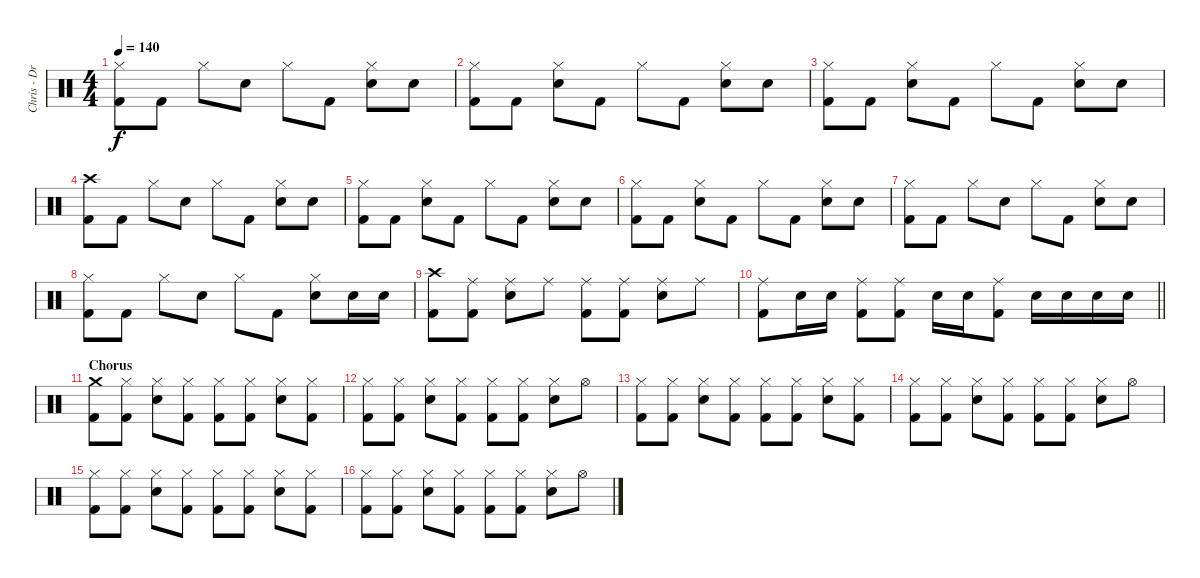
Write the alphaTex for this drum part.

\track ("Chris - Drums" "Chris - Dr") {instrument percussion}
\staff {score}
\articulation defaults
\ts (4 4)
\tempo 140
\clef neutral
\ks c
("Hi-Hat (closed)" "Kick (hit) 2").8{dy f} "Kick (hit) 2".8 "Hi-Hat (closed)".8 "Electric Snare (hit)".8 "Hi-Hat (closed)".8 "Kick (hit) 2".8 ("Hi-Hat (closed)" "Electric Snare (hit)").8 "Electric Snare (hit)".8 |
("Hi-Hat (closed)" "Kick (hit) 2").8 "Kick (hit) 2".8 ("Hi-Hat (closed)" "Electric Snare (hit)").8 "Kick (hit) 2".8 "Hi-Hat (closed)".8 "Kick (hit) 2".8 ("Hi-Hat (closed)" "Electric Snare (hit)").8 "Electric Snare (hit)".8 |
("Hi-Hat (closed)" "Kick (hit) 2").8 "Kick (hit) 2".8 ("Hi-Hat (closed)" "Electric Snare (hit)").8 "Kick (hit) 2".8 "Hi-Hat (closed)".8 "Kick (hit) 2".8 ("Hi-Hat (closed)" "Electric Snare (hit)").8 "Electric Snare (hit)".8 |
("Crash high (hit)" "Kick (hit) 2").8 "Kick (hit) 2".8 "Hi-Hat (closed)".8 "Electric Snare (hit)".8 "Hi-Hat (closed)".8 "Kick (hit) 2".8 ("Hi-Hat (closed)" "Electric Snare (hit)").8 "Electric Snare (hit)".8 |
("Hi-Hat (closed)" "Kick (hit) 2").8 "Kick (hit) 2".8 ("Hi-Hat (closed)" "Electric Snare (hit)").8 "Kick (hit) 2".8 "Hi-Hat (closed)".8 "Kick (hit) 2".8 ("Hi-Hat (closed)" "Electric Snare (hit)").8 "Electric Snare (hit)".8 |
("Hi-Hat (closed)" "Kick (hit) 2").8 "Kick (hit) 2".8 ("Hi-Hat (closed)" "Electric Snare (hit)").8 "Kick (hit) 2".8 "Hi-Hat (closed)".8 "Kick (hit) 2".8 ("Hi-Hat (closed)" "Electric Snare (hit)").8 "Electric Snare (hit)".8 |
("Hi-Hat (closed)" "Kick (hit) 2").8 "Kick (hit) 2".8 "Hi-Hat (closed)".8 "Electric Snare (hit)".8 "Hi-Hat (closed)".8 "Kick (hit) 2".8 ("Hi-Hat (closed)" "Electric Snare (hit)").8 "Electric Snare (hit)".8 |
("Hi-Hat (closed)" "Kick (hit) 2").8 "Kick (hit) 2".8 "Hi-Hat (closed)".8 "Electric Snare (hit)".8 "Hi-Hat (closed)".8 "Kick (hit) 2".8 ("Hi-Hat (closed)" "Electric Snare (hit)").8 "Electric Snare (hit)".16 "Electric Snare (hit)".16 |
("Crash high (hit)" "Kick (hit) 2").8 ("Ride (middle)" "Kick (hit) 2").8 ("Ride (middle)" "Electric Snare (hit)").8 "Ride (middle)".8 ("Ride (middle)" "Kick (hit) 2").8 ("Ride (middle)" "Kick (hit) 2").8 ("Ride (middle)" "Electric Snare (hit)").8 "Ride (middle)".8 |
\barLineRight lightlight
("Ride (middle)" "Kick (hit) 2").8 "Electric Snare (hit)".16 "Electric Snare (hit)".16 ("Ride (middle)" "Kick (hit) 2").8 ("Ride (middle)" "Kick (hit) 2").8 "Electric Snare (hit)".16 "Electric Snare (hit)".16 ("Ride (middle)" "Kick (hit) 2").8 "Electric Snare (hit)".16 "Electric Snare (hit)".16 "Electric Snare (hit)".16 "Electric Snare (hit)".16 |
\section ("" "Chorus")
("Crash medium (hit)" "Kick (hit) 2").8 ("Hi-Hat (closed)" "Kick (hit) 2").8 ("Hi-Hat (closed)" "Electric Snare (hit)").8 ("Hi-Hat (closed)" "Kick (hit) 2").8 ("Hi-Hat (closed)" "Kick (hit) 2").8 ("Hi-Hat (closed)" "Kick (hit) 2").8 ("Hi-Hat (closed)" "Electric Snare (hit)").8 ("Hi-Hat (closed)" "Kick (hit) 2").8 |
("Hi-Hat (closed)" "Kick (hit) 2").8 ("Hi-Hat (closed)" "Kick (hit) 2").8 ("Hi-Hat (closed)" "Electric Snare (hit)").8 ("Hi-Hat (closed)" "Kick (hit) 2").8 ("Hi-Hat (closed)" "Kick (hit) 2").8 ("Hi-Hat (closed)" "Kick (hit) 2").8 ("Hi-Hat (closed)" "Electric Snare (hit)").8 "Hi-Hat (open)".8 |
("Hi-Hat (closed)" "Kick (hit) 2").8 ("Hi-Hat (closed)" "Kick (hit) 2").8 ("Hi-Hat (closed)" "Electric Snare (hit)").8 ("Hi-Hat (closed)" "Kick (hit) 2").8 ("Hi-Hat (closed)" "Kick (hit) 2").8 ("Hi-Hat (closed)" "Kick (hit) 2").8 ("Hi-Hat (closed)" "Electric Snare (hit)").8 ("Hi-Hat (closed)" "Kick (hit) 2").8 |
("Hi-Hat (closed)" "Kick (hit) 2").8 ("Hi-Hat (closed)" "Kick (hit) 2").8 ("Hi-Hat (closed)" "Electric Snare (hit)").8 ("Hi-Hat (closed)" "Kick (hit) 2").8 ("Hi-Hat (closed)" "Kick (hit) 2").8 ("Hi-Hat (closed)" "Kick (hit) 2").8 ("Hi-Hat (closed)" "Electric Snare (hit)").8 "Hi-Hat (open)".8 |
("Hi-Hat (closed)" "Kick (hit) 2").8 ("Hi-Hat (closed)" "Kick (hit) 2").8 ("Hi-Hat (closed)" "Electric Snare (hit)").8 ("Hi-Hat (closed)" "Kick (hit) 2").8 ("Hi-Hat (closed)" "Kick (hit) 2").8 ("Hi-Hat (closed)" "Kick (hit) 2").8 ("Hi-Hat (closed)" "Electric Snare (hit)").8 ("Hi-Hat (closed)" "Kick (hit) 2").8 |
("Hi-Hat (closed)" "Kick (hit) 2").8 ("Hi-Hat (closed)" "Kick (hit) 2").8 ("Hi-Hat (closed)" "Electric Snare (hit)").8 ("Hi-Hat (closed)" "Kick (hit) 2").8 ("Hi-Hat (closed)" "Kick (hit) 2").8 ("Hi-Hat (closed)" "Kick (hit) 2").8 ("Hi-Hat (closed)" "Electric Snare (hit)").8 "Hi-Hat (open)".8
